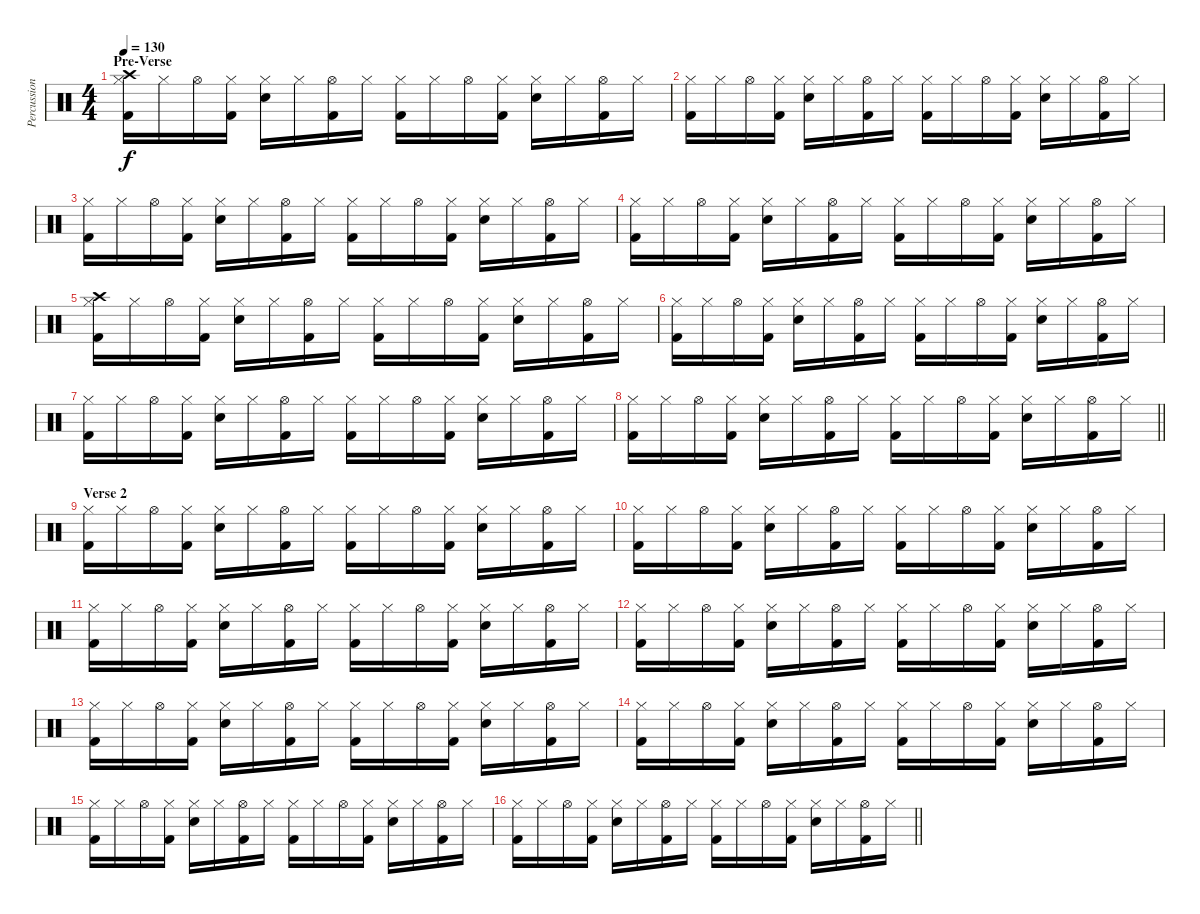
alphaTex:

\track ("Percussion" "Percussion") {instrument percussion}
\staff {score}
\articulation defaults
\ts (4 4)
\section ("" "Pre-Verse")
\tempo 130
\clef neutral
\ks c
("Hi-Hat (closed)" "Crash high (hit)" "Kick (hit) 2").16{dy f} "Hi-Hat (closed)".16 "Hi-Hat (open)".16 ("Hi-Hat (closed)" "Kick (hit) 2").16 ("Hi-Hat (closed)" "Snare (hit) 2").16 "Hi-Hat (closed)".16 ("Hi-Hat (open)" "Kick (hit) 2").16 "Hi-Hat (closed)".16 ("Hi-Hat (closed)" "Kick (hit) 2").16 "Hi-Hat (closed)".16 "Hi-Hat (open)".16 ("Hi-Hat (closed)" "Kick (hit) 2").16 ("Hi-Hat (closed)" "Snare (hit) 2").16 "Hi-Hat (closed)".16 ("Hi-Hat (open)" "Kick (hit) 2").16 "Hi-Hat (closed)".16 |
("Hi-Hat (closed)" "Kick (hit) 2").16 "Hi-Hat (closed)".16 "Hi-Hat (open)".16 ("Hi-Hat (closed)" "Kick (hit) 2").16 ("Hi-Hat (closed)" "Snare (hit) 2").16 "Hi-Hat (closed)".16 ("Hi-Hat (open)" "Kick (hit) 2").16 "Hi-Hat (closed)".16 ("Hi-Hat (closed)" "Kick (hit) 2").16 "Hi-Hat (closed)".16 "Hi-Hat (open)".16 ("Hi-Hat (closed)" "Kick (hit) 2").16 ("Hi-Hat (closed)" "Snare (hit) 2").16 "Hi-Hat (closed)".16 ("Hi-Hat (open)" "Kick (hit) 2").16 "Hi-Hat (closed)".16 |
("Hi-Hat (closed)" "Kick (hit) 2").16 "Hi-Hat (closed)".16 "Hi-Hat (open)".16 ("Hi-Hat (closed)" "Kick (hit) 2").16 ("Hi-Hat (closed)" "Snare (hit) 2").16 "Hi-Hat (closed)".16 ("Hi-Hat (open)" "Kick (hit) 2").16 "Hi-Hat (closed)".16 ("Hi-Hat (closed)" "Kick (hit) 2").16 "Hi-Hat (closed)".16 "Hi-Hat (open)".16 ("Hi-Hat (closed)" "Kick (hit) 2").16 ("Hi-Hat (closed)" "Snare (hit) 2").16 "Hi-Hat (closed)".16 ("Hi-Hat (open)" "Kick (hit) 2").16 "Hi-Hat (closed)".16 |
("Hi-Hat (closed)" "Kick (hit) 2").16 "Hi-Hat (closed)".16 "Hi-Hat (open)".16 ("Hi-Hat (closed)" "Kick (hit) 2").16 ("Hi-Hat (closed)" "Snare (hit) 2").16 "Hi-Hat (closed)".16 ("Hi-Hat (open)" "Kick (hit) 2").16 "Hi-Hat (closed)".16 ("Hi-Hat (closed)" "Kick (hit) 2").16 "Hi-Hat (closed)".16 "Hi-Hat (open)".16 ("Hi-Hat (closed)" "Kick (hit) 2").16 ("Hi-Hat (closed)" "Snare (hit) 2").16 "Hi-Hat (closed)".16 ("Hi-Hat (open)" "Kick (hit) 2").16 "Hi-Hat (closed)".16 |
("Hi-Hat (closed)" "Crash high (hit)" "Kick (hit) 2").16 "Hi-Hat (closed)".16 "Hi-Hat (open)".16 ("Hi-Hat (closed)" "Kick (hit) 2").16 ("Hi-Hat (closed)" "Snare (hit) 2").16 "Hi-Hat (closed)".16 ("Hi-Hat (open)" "Kick (hit) 2").16 "Hi-Hat (closed)".16 ("Hi-Hat (closed)" "Kick (hit) 2").16 "Hi-Hat (closed)".16 "Hi-Hat (open)".16 ("Hi-Hat (closed)" "Kick (hit) 2").16 ("Hi-Hat (closed)" "Snare (hit) 2").16 "Hi-Hat (closed)".16 ("Hi-Hat (open)" "Kick (hit) 2").16 "Hi-Hat (closed)".16 |
("Hi-Hat (closed)" "Kick (hit) 2").16 "Hi-Hat (closed)".16 "Hi-Hat (open)".16 ("Hi-Hat (closed)" "Kick (hit) 2").16 ("Hi-Hat (closed)" "Snare (hit) 2").16 "Hi-Hat (closed)".16 ("Hi-Hat (open)" "Kick (hit) 2").16 "Hi-Hat (closed)".16 ("Hi-Hat (closed)" "Kick (hit) 2").16 "Hi-Hat (closed)".16 "Hi-Hat (open)".16 ("Hi-Hat (closed)" "Kick (hit) 2").16 ("Hi-Hat (closed)" "Snare (hit) 2").16 "Hi-Hat (closed)".16 ("Hi-Hat (open)" "Kick (hit) 2").16 "Hi-Hat (closed)".16 |
("Hi-Hat (closed)" "Kick (hit) 2").16 "Hi-Hat (closed)".16 "Hi-Hat (open)".16 ("Hi-Hat (closed)" "Kick (hit) 2").16 ("Hi-Hat (closed)" "Snare (hit) 2").16 "Hi-Hat (closed)".16 ("Hi-Hat (open)" "Kick (hit) 2").16 "Hi-Hat (closed)".16 ("Hi-Hat (closed)" "Kick (hit) 2").16 "Hi-Hat (closed)".16 "Hi-Hat (open)".16 ("Hi-Hat (closed)" "Kick (hit) 2").16 ("Hi-Hat (closed)" "Snare (hit) 2").16 "Hi-Hat (closed)".16 ("Hi-Hat (open)" "Kick (hit) 2").16 "Hi-Hat (closed)".16 |
\barLineRight lightlight
("Hi-Hat (closed)" "Kick (hit) 2").16 "Hi-Hat (closed)".16 "Hi-Hat (open)".16 ("Hi-Hat (closed)" "Kick (hit) 2").16 ("Hi-Hat (closed)" "Snare (hit) 2").16 "Hi-Hat (closed)".16 ("Hi-Hat (open)" "Kick (hit) 2").16 "Hi-Hat (closed)".16 ("Hi-Hat (closed)" "Kick (hit) 2").16 "Hi-Hat (closed)".16 "Hi-Hat (open)".16 ("Hi-Hat (closed)" "Kick (hit) 2").16 ("Hi-Hat (closed)" "Snare (hit) 2").16 "Hi-Hat (closed)".16 ("Hi-Hat (open)" "Kick (hit) 2").16 "Hi-Hat (closed)".16 |
\section ("" "Verse 2")
("Hi-Hat (closed)" "Kick (hit) 2").16 "Hi-Hat (closed)".16 "Hi-Hat (open)".16 ("Hi-Hat (closed)" "Kick (hit) 2").16 ("Hi-Hat (closed)" "Snare (hit) 2").16 "Hi-Hat (closed)".16 ("Hi-Hat (open)" "Kick (hit) 2").16 "Hi-Hat (closed)".16 ("Hi-Hat (closed)" "Kick (hit) 2").16 "Hi-Hat (closed)".16 "Hi-Hat (open)".16 ("Hi-Hat (closed)" "Kick (hit) 2").16 ("Hi-Hat (closed)" "Snare (hit) 2").16 "Hi-Hat (closed)".16 ("Hi-Hat (open)" "Kick (hit) 2").16 "Hi-Hat (closed)".16 |
("Hi-Hat (closed)" "Kick (hit) 2").16 "Hi-Hat (closed)".16 "Hi-Hat (open)".16 ("Hi-Hat (closed)" "Kick (hit) 2").16 ("Hi-Hat (closed)" "Snare (hit) 2").16 "Hi-Hat (closed)".16 ("Hi-Hat (open)" "Kick (hit) 2").16 "Hi-Hat (closed)".16 ("Hi-Hat (closed)" "Kick (hit) 2").16 "Hi-Hat (closed)".16 "Hi-Hat (open)".16 ("Hi-Hat (closed)" "Kick (hit) 2").16 ("Hi-Hat (closed)" "Snare (hit) 2").16 "Hi-Hat (closed)".16 ("Hi-Hat (open)" "Kick (hit) 2").16 "Hi-Hat (closed)".16 |
("Hi-Hat (closed)" "Kick (hit) 2").16 "Hi-Hat (closed)".16 "Hi-Hat (open)".16 ("Hi-Hat (closed)" "Kick (hit) 2").16 ("Hi-Hat (closed)" "Snare (hit) 2").16 "Hi-Hat (closed)".16 ("Hi-Hat (open)" "Kick (hit) 2").16 "Hi-Hat (closed)".16 ("Hi-Hat (closed)" "Kick (hit) 2").16 "Hi-Hat (closed)".16 "Hi-Hat (open)".16 ("Hi-Hat (closed)" "Kick (hit) 2").16 ("Hi-Hat (closed)" "Snare (hit) 2").16 "Hi-Hat (closed)".16 ("Hi-Hat (open)" "Kick (hit) 2").16 "Hi-Hat (closed)".16 |
("Hi-Hat (closed)" "Kick (hit) 2").16 "Hi-Hat (closed)".16 "Hi-Hat (open)".16 ("Hi-Hat (closed)" "Kick (hit) 2").16 ("Hi-Hat (closed)" "Snare (hit) 2").16 "Hi-Hat (closed)".16 ("Hi-Hat (open)" "Kick (hit) 2").16 "Hi-Hat (closed)".16 ("Hi-Hat (closed)" "Kick (hit) 2").16 "Hi-Hat (closed)".16 "Hi-Hat (open)".16 ("Hi-Hat (closed)" "Kick (hit) 2").16 ("Hi-Hat (closed)" "Snare (hit) 2").16 "Hi-Hat (closed)".16 ("Hi-Hat (open)" "Kick (hit) 2").16 "Hi-Hat (closed)".16 |
("Hi-Hat (closed)" "Kick (hit) 2").16 "Hi-Hat (closed)".16 "Hi-Hat (open)".16 ("Hi-Hat (closed)" "Kick (hit) 2").16 ("Hi-Hat (closed)" "Snare (hit) 2").16 "Hi-Hat (closed)".16 ("Hi-Hat (open)" "Kick (hit) 2").16 "Hi-Hat (closed)".16 ("Hi-Hat (closed)" "Kick (hit) 2").16 "Hi-Hat (closed)".16 "Hi-Hat (open)".16 ("Hi-Hat (closed)" "Kick (hit) 2").16 ("Hi-Hat (closed)" "Snare (hit) 2").16 "Hi-Hat (closed)".16 ("Hi-Hat (open)" "Kick (hit) 2").16 "Hi-Hat (closed)".16 |
("Hi-Hat (closed)" "Kick (hit) 2").16 "Hi-Hat (closed)".16 "Hi-Hat (open)".16 ("Hi-Hat (closed)" "Kick (hit) 2").16 ("Hi-Hat (closed)" "Snare (hit) 2").16 "Hi-Hat (closed)".16 ("Hi-Hat (open)" "Kick (hit) 2").16 "Hi-Hat (closed)".16 ("Hi-Hat (closed)" "Kick (hit) 2").16 "Hi-Hat (closed)".16 "Hi-Hat (open)".16 ("Hi-Hat (closed)" "Kick (hit) 2").16 ("Hi-Hat (closed)" "Snare (hit) 2").16 "Hi-Hat (closed)".16 ("Hi-Hat (open)" "Kick (hit) 2").16 "Hi-Hat (closed)".16 |
("Hi-Hat (closed)" "Kick (hit) 2").16 "Hi-Hat (closed)".16 "Hi-Hat (open)".16 ("Hi-Hat (closed)" "Kick (hit) 2").16 ("Hi-Hat (closed)" "Snare (hit) 2").16 "Hi-Hat (closed)".16 ("Hi-Hat (open)" "Kick (hit) 2").16 "Hi-Hat (closed)".16 ("Hi-Hat (closed)" "Kick (hit) 2").16 "Hi-Hat (closed)".16 "Hi-Hat (open)".16 ("Hi-Hat (closed)" "Kick (hit) 2").16 ("Hi-Hat (closed)" "Snare (hit) 2").16 "Hi-Hat (closed)".16 ("Hi-Hat (open)" "Kick (hit) 2").16 "Hi-Hat (closed)".16 |
\barLineRight lightlight
("Hi-Hat (closed)" "Kick (hit) 2").16 "Hi-Hat (closed)".16 "Hi-Hat (open)".16 ("Hi-Hat (closed)" "Kick (hit) 2").16 ("Hi-Hat (closed)" "Snare (hit) 2").16 "Hi-Hat (closed)".16 ("Hi-Hat (open)" "Kick (hit) 2").16 "Hi-Hat (closed)".16 ("Hi-Hat (closed)" "Kick (hit) 2").16 "Hi-Hat (closed)".16 "Hi-Hat (open)".16 ("Hi-Hat (closed)" "Kick (hit) 2").16 ("Hi-Hat (closed)" "Snare (hit) 2").16 "Hi-Hat (closed)".16 ("Hi-Hat (open)" "Kick (hit) 2").16 "Hi-Hat (closed)".16
